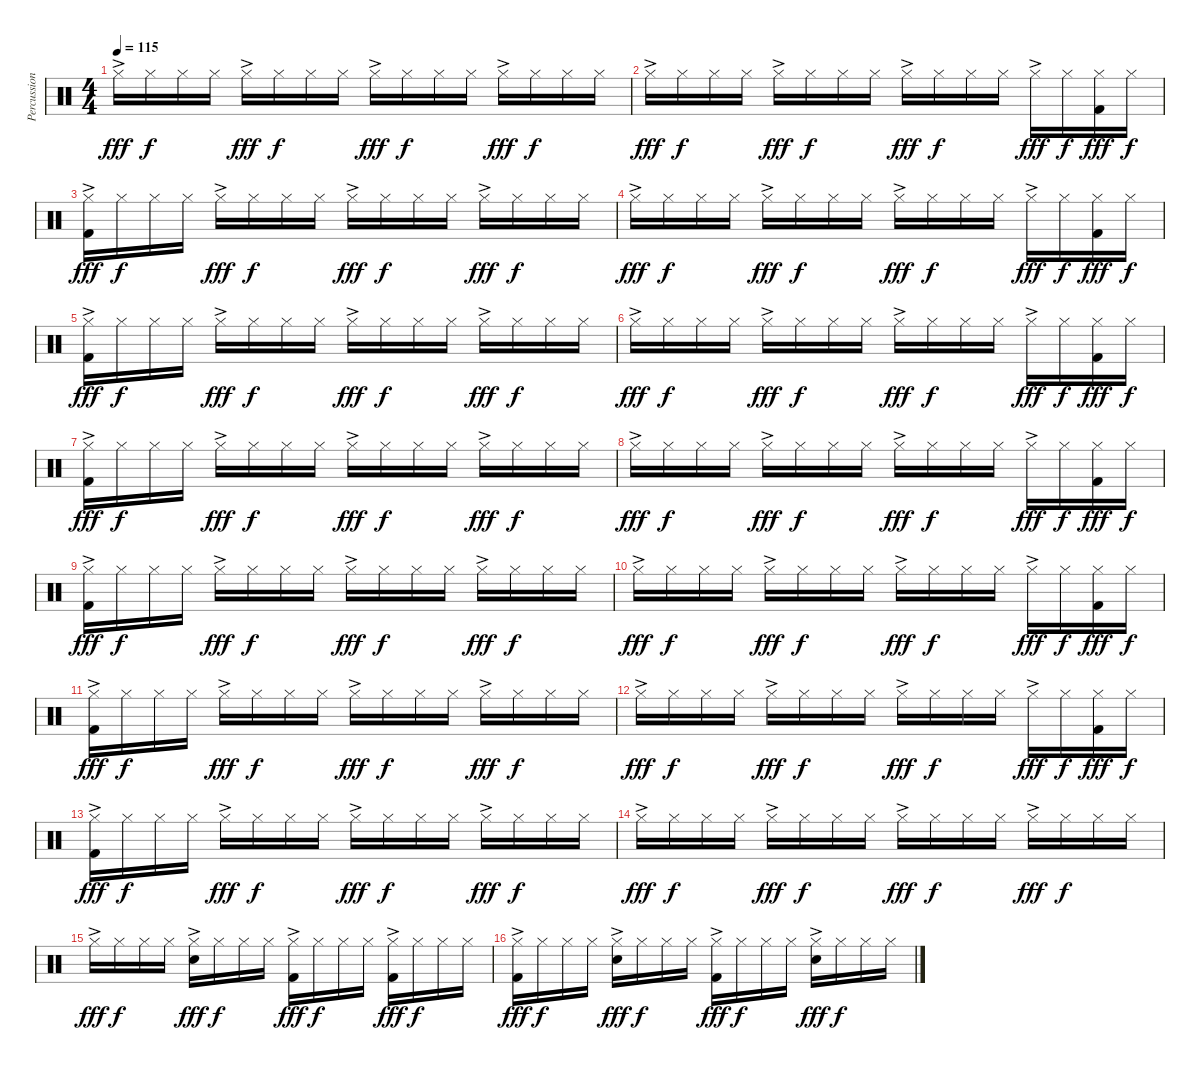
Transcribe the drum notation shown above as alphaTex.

\track ("Percussion" "Percussion") {instrument percussion}
\staff {score}
\articulation defaults
\ts (4 4)
\tempo 115
\clef neutral
\ks c "Hi-Hat (closed)"{ac}.16{dy fff} "Hi-Hat (closed)".16{dy f} "Hi-Hat (closed)".16 "Hi-Hat (closed)".16 "Hi-Hat (closed)"{ac}.16{dy fff} "Hi-Hat (closed)".16{dy f} "Hi-Hat (closed)".16 "Hi-Hat (closed)".16 "Hi-Hat (closed)"{ac}.16{dy fff} "Hi-Hat (closed)".16{dy f} "Hi-Hat (closed)".16 "Hi-Hat (closed)".16 "Hi-Hat (closed)"{ac}.16{dy fff} "Hi-Hat (closed)".16{dy f} "Hi-Hat (closed)".16 "Hi-Hat (closed)".16
|
"Hi-Hat (closed)"{ac}.16{dy fff} "Hi-Hat (closed)".16{dy f} "Hi-Hat (closed)".16 "Hi-Hat (closed)".16 "Hi-Hat (closed)"{ac}.16{dy fff} "Hi-Hat (closed)".16{dy f} "Hi-Hat (closed)".16 "Hi-Hat (closed)".16 "Hi-Hat (closed)"{ac}.16{dy fff} "Hi-Hat (closed)".16{dy f} "Hi-Hat (closed)".16 "Hi-Hat (closed)".16 "Hi-Hat (closed)"{ac}.16{dy fff} "Hi-Hat (closed)".16{dy f} ("Hi-Hat (closed)" "Kick (hit) 2").16{dy fff} "Hi-Hat (closed)".16{dy f} |
("Hi-Hat (closed)"{ac} "Kick (hit) 2").16{dy fff} "Hi-Hat (closed)".16{dy f} "Hi-Hat (closed)".16 "Hi-Hat (closed)".16 "Hi-Hat (closed)"{ac}.16{dy fff} "Hi-Hat (closed)".16{dy f} "Hi-Hat (closed)".16 "Hi-Hat (closed)".16 "Hi-Hat (closed)"{ac}.16{dy fff} "Hi-Hat (closed)".16{dy f} "Hi-Hat (closed)".16 "Hi-Hat (closed)".16 "Hi-Hat (closed)"{ac}.16{dy fff} "Hi-Hat (closed)".16{dy f} "Hi-Hat (closed)".16 "Hi-Hat (closed)".16 |
"Hi-Hat (closed)"{ac}.16{dy fff} "Hi-Hat (closed)".16{dy f} "Hi-Hat (closed)".16 "Hi-Hat (closed)".16 "Hi-Hat (closed)"{ac}.16{dy fff} "Hi-Hat (closed)".16{dy f} "Hi-Hat (closed)".16 "Hi-Hat (closed)".16 "Hi-Hat (closed)"{ac}.16{dy fff} "Hi-Hat (closed)".16{dy f} "Hi-Hat (closed)".16 "Hi-Hat (closed)".16 "Hi-Hat (closed)"{ac}.16{dy fff} "Hi-Hat (closed)".16{dy f} ("Hi-Hat (closed)" "Kick (hit) 2").16{dy fff} "Hi-Hat (closed)".16{dy f} |
("Hi-Hat (closed)"{ac} "Kick (hit) 2").16{dy fff} "Hi-Hat (closed)".16{dy f} "Hi-Hat (closed)".16 "Hi-Hat (closed)".16 "Hi-Hat (closed)"{ac}.16{dy fff} "Hi-Hat (closed)".16{dy f} "Hi-Hat (closed)".16 "Hi-Hat (closed)".16 "Hi-Hat (closed)"{ac}.16{dy fff} "Hi-Hat (closed)".16{dy f} "Hi-Hat (closed)".16 "Hi-Hat (closed)".16 "Hi-Hat (closed)"{ac}.16{dy fff} "Hi-Hat (closed)".16{dy f} "Hi-Hat (closed)".16 "Hi-Hat (closed)".16 |
"Hi-Hat (closed)"{ac}.16{dy fff} "Hi-Hat (closed)".16{dy f} "Hi-Hat (closed)".16 "Hi-Hat (closed)".16 "Hi-Hat (closed)"{ac}.16{dy fff} "Hi-Hat (closed)".16{dy f} "Hi-Hat (closed)".16 "Hi-Hat (closed)".16 "Hi-Hat (closed)"{ac}.16{dy fff} "Hi-Hat (closed)".16{dy f} "Hi-Hat (closed)".16 "Hi-Hat (closed)".16 "Hi-Hat (closed)"{ac}.16{dy fff} "Hi-Hat (closed)".16{dy f} ("Hi-Hat (closed)" "Kick (hit) 2").16{dy fff} "Hi-Hat (closed)".16{dy f} |
("Hi-Hat (closed)"{ac} "Kick (hit) 2").16{dy fff} "Hi-Hat (closed)".16{dy f} "Hi-Hat (closed)".16 "Hi-Hat (closed)".16 "Hi-Hat (closed)"{ac}.16{dy fff} "Hi-Hat (closed)".16{dy f} "Hi-Hat (closed)".16 "Hi-Hat (closed)".16 "Hi-Hat (closed)"{ac}.16{dy fff} "Hi-Hat (closed)".16{dy f} "Hi-Hat (closed)".16 "Hi-Hat (closed)".16 "Hi-Hat (closed)"{ac}.16{dy fff} "Hi-Hat (closed)".16{dy f} "Hi-Hat (closed)".16 "Hi-Hat (closed)".16 |
"Hi-Hat (closed)"{ac}.16{dy fff} "Hi-Hat (closed)".16{dy f} "Hi-Hat (closed)".16 "Hi-Hat (closed)".16 "Hi-Hat (closed)"{ac}.16{dy fff} "Hi-Hat (closed)".16{dy f} "Hi-Hat (closed)".16 "Hi-Hat (closed)".16 "Hi-Hat (closed)"{ac}.16{dy fff} "Hi-Hat (closed)".16{dy f} "Hi-Hat (closed)".16 "Hi-Hat (closed)".16 "Hi-Hat (closed)"{ac}.16{dy fff} "Hi-Hat (closed)".16{dy f} ("Hi-Hat (closed)" "Kick (hit) 2").16{dy fff} "Hi-Hat (closed)".16{dy f} |
("Hi-Hat (closed)"{ac} "Kick (hit) 2").16{dy fff} "Hi-Hat (closed)".16{dy f} "Hi-Hat (closed)".16 "Hi-Hat (closed)".16 "Hi-Hat (closed)"{ac}.16{dy fff} "Hi-Hat (closed)".16{dy f} "Hi-Hat (closed)".16 "Hi-Hat (closed)".16 "Hi-Hat (closed)"{ac}.16{dy fff} "Hi-Hat (closed)".16{dy f} "Hi-Hat (closed)".16 "Hi-Hat (closed)".16 "Hi-Hat (closed)"{ac}.16{dy fff} "Hi-Hat (closed)".16{dy f} "Hi-Hat (closed)".16 "Hi-Hat (closed)".16 |
"Hi-Hat (closed)"{ac}.16{dy fff} "Hi-Hat (closed)".16{dy f} "Hi-Hat (closed)".16 "Hi-Hat (closed)".16 "Hi-Hat (closed)"{ac}.16{dy fff} "Hi-Hat (closed)".16{dy f} "Hi-Hat (closed)".16 "Hi-Hat (closed)".16 "Hi-Hat (closed)"{ac}.16{dy fff} "Hi-Hat (closed)".16{dy f} "Hi-Hat (closed)".16 "Hi-Hat (closed)".16 "Hi-Hat (closed)"{ac}.16{dy fff} "Hi-Hat (closed)".16{dy f} ("Hi-Hat (closed)" "Kick (hit) 2").16{dy fff} "Hi-Hat (closed)".16{dy f} |
("Hi-Hat (closed)"{ac} "Kick (hit) 2").16{dy fff} "Hi-Hat (closed)".16{dy f} "Hi-Hat (closed)".16 "Hi-Hat (closed)".16 "Hi-Hat (closed)"{ac}.16{dy fff} "Hi-Hat (closed)".16{dy f} "Hi-Hat (closed)".16 "Hi-Hat (closed)".16 "Hi-Hat (closed)"{ac}.16{dy fff} "Hi-Hat (closed)".16{dy f} "Hi-Hat (closed)".16 "Hi-Hat (closed)".16 "Hi-Hat (closed)"{ac}.16{dy fff} "Hi-Hat (closed)".16{dy f} "Hi-Hat (closed)".16 "Hi-Hat (closed)".16 |
"Hi-Hat (closed)"{ac}.16{dy fff} "Hi-Hat (closed)".16{dy f} "Hi-Hat (closed)".16 "Hi-Hat (closed)".16 "Hi-Hat (closed)"{ac}.16{dy fff} "Hi-Hat (closed)".16{dy f} "Hi-Hat (closed)".16 "Hi-Hat (closed)".16 "Hi-Hat (closed)"{ac}.16{dy fff} "Hi-Hat (closed)".16{dy f} "Hi-Hat (closed)".16 "Hi-Hat (closed)".16 "Hi-Hat (closed)"{ac}.16{dy fff} "Hi-Hat (closed)".16{dy f} ("Hi-Hat (closed)" "Kick (hit) 2").16{dy fff} "Hi-Hat (closed)".16{dy f} |
("Hi-Hat (closed)"{ac} "Kick (hit) 2").16{dy fff} "Hi-Hat (closed)".16{dy f} "Hi-Hat (closed)".16 "Hi-Hat (closed)".16 "Hi-Hat (closed)"{ac}.16{dy fff} "Hi-Hat (closed)".16{dy f} "Hi-Hat (closed)".16 "Hi-Hat (closed)".16 "Hi-Hat (closed)"{ac}.16{dy fff} "Hi-Hat (closed)".16{dy f} "Hi-Hat (closed)".16 "Hi-Hat (closed)".16 "Hi-Hat (closed)"{ac}.16{dy fff} "Hi-Hat (closed)".16{dy f} "Hi-Hat (closed)".16 "Hi-Hat (closed)".16 |
"Hi-Hat (closed)"{ac}.16{dy fff} "Hi-Hat (closed)".16{dy f} "Hi-Hat (closed)".16 "Hi-Hat (closed)".16 "Hi-Hat (closed)"{ac}.16{dy fff} "Hi-Hat (closed)".16{dy f} "Hi-Hat (closed)".16 "Hi-Hat (closed)".16 "Hi-Hat (closed)"{ac}.16{dy fff} "Hi-Hat (closed)".16{dy f} "Hi-Hat (closed)".16 "Hi-Hat (closed)".16 "Hi-Hat (closed)"{ac}.16{dy fff} "Hi-Hat (closed)".16{dy f} "Hi-Hat (closed)".16 "Hi-Hat (closed)".16 |
"Hi-Hat (closed)"{ac}.16{dy fff} "Hi-Hat (closed)".16{dy f} "Hi-Hat (closed)".16 "Hi-Hat (closed)".16 ("Hi-Hat (closed)"{ac} "Snare (hit) 2").16{dy fff} "Hi-Hat (closed)".16{dy f} "Hi-Hat (closed)".16 "Hi-Hat (closed)".16 ("Hi-Hat (closed)"{ac} "Kick (hit) 2").16{dy fff} "Hi-Hat (closed)".16{dy f} "Hi-Hat (closed)".16 "Hi-Hat (closed)".16 ("Hi-Hat (closed)"{ac} "Kick (hit) 2").16{dy fff} "Hi-Hat (closed)".16{dy f} "Hi-Hat (closed)".16 "Hi-Hat (closed)".16 |
("Hi-Hat (closed)"{ac} "Kick (hit) 2").16{dy fff} "Hi-Hat (closed)".16{dy f} "Hi-Hat (closed)".16 "Hi-Hat (closed)".16 ("Hi-Hat (closed)"{ac} "Snare (hit) 2").16{dy fff} "Hi-Hat (closed)".16{dy f} "Hi-Hat (closed)".16 "Hi-Hat (closed)".16 ("Hi-Hat (closed)"{ac} "Kick (hit) 2").16{dy fff} "Hi-Hat (closed)".16{dy f} "Hi-Hat (closed)".16 "Hi-Hat (closed)".16 ("Hi-Hat (closed)"{ac} "Snare (hit) 2").16{dy fff} "Hi-Hat (closed)".16{dy f} "Hi-Hat (closed)".16 "Hi-Hat (closed)".16
